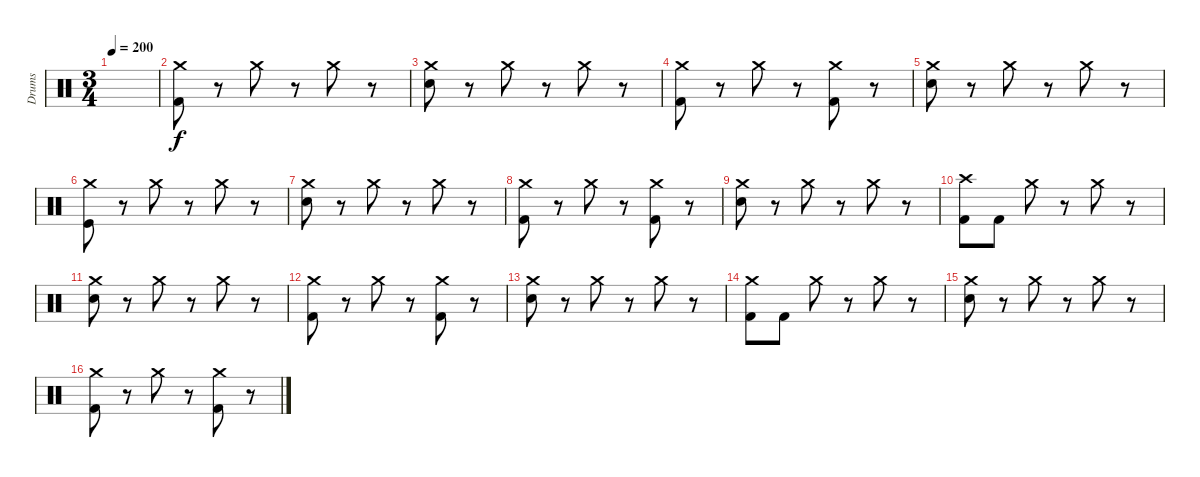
\track ("Drums" "Drums") {instrument percussion}
\staff {score}
\articulation defaults
\ts (3 4)
\tempo 200
\clef neutral
\ks c
|
("Crash medium (hit)" "Kick (hit) 2").8 r.8 "Crash medium (hit)".8 r.8 "Crash medium (hit)".8 r.8 |
("Crash medium (hit)" "Snare (hit) 2").8 r.8 "Crash medium (hit)".8 r.8 "Crash medium (hit)".8 r.8 |
("Crash medium (hit)" "Kick (hit) 2").8 r.8 "Crash medium (hit)".8 r.8 ("Crash medium (hit)" "Kick (hit) 2").8 r.8 |
("Crash medium (hit)" "Snare (hit) 2").8 r.8 "Crash medium (hit)".8 r.8 "Crash medium (hit)".8 r.8 |
("Crash medium (hit)" "Kick (hit)").8 r.8 "Crash medium (hit)".8 r.8 "Crash medium (hit)".8 r.8 |
("Crash medium (hit)" "Snare (hit) 2").8 r.8 "Crash medium (hit)".8 r.8 "Crash medium (hit)".8 r.8 |
("Crash medium (hit)" "Kick (hit) 2").8 r.8 "Crash medium (hit)".8 r.8 ("Crash medium (hit)" "Kick (hit) 2").8 r.8 |
("Crash medium (hit)" "Snare (hit) 2").8 r.8 "Crash medium (hit)".8 r.8 "Crash medium (hit)".8 r.8 |
("Crash high (hit)" "Kick (hit) 2").8 "Kick (hit) 2".8 "Crash medium (hit)".8 r.8 "Crash medium (hit)".8 r.8 |
("Crash medium (hit)" "Snare (hit) 2").8 r.8 "Crash medium (hit)".8 r.8 "Crash medium (hit)".8 r.8 |
("Crash medium (hit)" "Kick (hit) 2").8 r.8 "Crash medium (hit)".8 r.8 ("Crash medium (hit)" "Kick (hit) 2").8 r.8 |
("Crash medium (hit)" "Snare (hit) 2").8 r.8 "Crash medium (hit)".8 r.8 "Crash medium (hit)".8 r.8 |
("Crash medium (hit)" "Kick (hit) 2").8 "Kick (hit) 2".8 "Crash medium (hit)".8 r.8 "Crash medium (hit)".8 r.8 |
("Crash medium (hit)" "Snare (hit) 2").8 r.8 "Crash medium (hit)".8 r.8 "Crash medium (hit)".8 r.8 |
("Crash medium (hit)" "Kick (hit) 2").8 r.8 "Crash medium (hit)".8 r.8 ("Crash medium (hit)" "Kick (hit) 2").8 r.8
